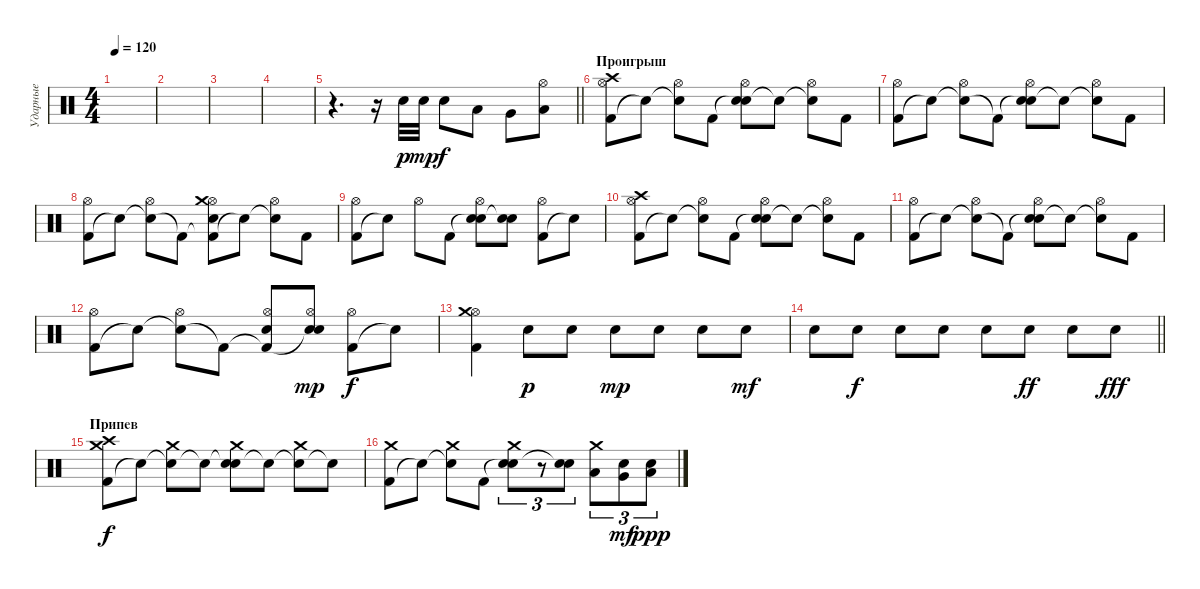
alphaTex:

\track ("Ударные" "Ударные") {instrument percussion}
\staff {score}
\articulation defaults
\ts (4 4)
\tempo 120
\clef neutral
\ks c
|
|
|
|
\barLineRight lightlight
r.4{d} r.16 "Electric Snare (hit)".32{dy p} "Electric Snare (hit)".32{dy mp} "Electric Snare (hit)".8{dy f} "Low Tom (hit)".8 "Very Low Tom (hit)".8 ("Low Floor Tom (hit)" "Hi-Hat (open)").8 |
\section ("" "Проигрыш")
("Kick (hit) 2" "Hi-Hat (open)" "Crash high (hit)").8 "Snare (hit)"{t}.8 ("Snare (hit)"{t} "Hi-Hat (open)").8 "Kick (hit) 2".8 ("Snare (hit)"{t} "Hi-Hat (open)" "Electric Snare (hit)").8 "Snare (hit)"{t}.8 ("Snare (hit)"{t} "Hi-Hat (open)").8 "Kick (hit) 2".8 |
("Kick (hit) 2" "Hi-Hat (open)").8 "Snare (hit)"{t}.8 ("Snare (hit)"{t} "Hi-Hat (open)").8 "Kick (hit) 2"{t}.8 ("Snare (hit)"{t} "Hi-Hat (open)" "Electric Snare (hit)").8 "Snare (hit)"{t}.8 ("Snare (hit)"{t} "Hi-Hat (open)").8 "Kick (hit) 2".8 |
("Kick (hit) 2" "Hi-Hat (open)").8 "Snare (hit)"{t}.8 ("Snare (hit)"{t} "Hi-Hat (open)").8 "Kick (hit) 2"{t}.8 ("Kick (hit) 2"{t} "Hi-Hat (open)" "Electric Snare (hit)" "Crash medium (hit)").8 "Snare (hit)"{t}.8 ("Snare (hit)"{t} "Hi-Hat (open)").8 "Kick (hit) 2".8 |
("Kick (hit) 2" "Hi-Hat (open)").8 "Snare (hit)"{t}.8 "Hi-Hat (open)".8 "Kick (hit) 2".8 ("Snare (hit)"{t} "Hi-Hat (open)" "Electric Snare (hit)").8 ("Snare (hit)"{t} "Electric Snare (hit)").8 ("Kick (hit) 2" "Hi-Hat (open)").8 "Snare (hit)"{t}.8 |
("Kick (hit) 2" "Hi-Hat (open)" "Crash high (hit)").8 "Snare (hit)"{t}.8 ("Snare (hit)"{t} "Hi-Hat (open)").8 "Kick (hit) 2".8 ("Snare (hit)"{t} "Hi-Hat (open)" "Electric Snare (hit)").8 "Snare (hit)"{t}.8 ("Snare (hit)"{t} "Hi-Hat (open)").8 "Kick (hit) 2".8 |
("Kick (hit) 2" "Hi-Hat (open)").8 "Snare (hit)"{t}.8 ("Snare (hit)"{t} "Hi-Hat (open)").8 "Kick (hit) 2"{t}.8 ("Snare (hit)"{t} "Hi-Hat (open)" "Electric Snare (hit)").8 "Snare (hit)"{t}.8 ("Snare (hit)"{t} "Hi-Hat (open)").8 "Kick (hit) 2".8 |
("Kick (hit) 2" "Hi-Hat (open)").8 "Snare (hit)"{t}.8 ("Snare (hit)"{t} "Hi-Hat (open)").8 "Kick (hit) 2"{t}.8 ("Kick (hit) 2"{t} "Hi-Hat (open)" "Electric Snare (hit)").8 ("Snare (hit)"{t} "Hi-Hat (open)" "Electric Snare (hit)").8{dy mp} ("Kick (hit) 2" "Hi-Hat (open)").8{dy f} "Snare (hit)"{t}.8 |
("Kick (hit) 2" "Hi-Hat (open)" "Crash medium (hit)").4 "Electric Snare (hit)".8{dy p} "Electric Snare (hit)".8 "Electric Snare (hit)".8{dy mp} "Electric Snare (hit)".8 "Electric Snare (hit)".8 "Electric Snare (hit)".8{dy mf} |
\barLineRight lightlight "Electric Snare (hit)".8 "Electric Snare (hit)".8{dy f} "Electric Snare (hit)".8 "Electric Snare (hit)".8 "Electric Snare (hit)".8 "Electric Snare (hit)".8{dy ff} "Electric Snare (hit)".8 "Electric Snare (hit)".8{dy fff}
|
\section ("" "Припев")
("Kick (hit) 2" "Crash medium (hit)" "Crash high (hit)").8{dy f} "Snare (hit)"{t}.8 ("Snare (hit)"{t} "Crash medium (hit)").8 "Snare (hit)"{t}.8 ("Snare (hit)"{t} "Crash medium (hit)" "Electric Snare (hit)").8 "Snare (hit)"{t}.8 ("Snare (hit)"{t} "Crash medium (hit)").8 "Snare (hit)"{t}.8 |
("Kick (hit) 2" "Crash medium (hit)").8 "Snare (hit)"{t}.8 ("Snare (hit)"{t} "Crash medium (hit)").8 "Kick (hit) 2".8 ("Snare (hit)"{t} "Crash medium (hit)" "Electric Snare (hit)").8{tu (3 2)} r.8{tu (3 2)} ("Snare (hit)"{t} "Electric Snare (hit)").8{tu (3 2)} ("Low Tom (hit)" "Crash medium (hit)").8{tu (3 2)} ("Very Low Tom (hit)" "Electric Snare (hit)").8{tu (3 2) dy mf} ("Low Floor Tom (hit)" "Electric Snare (hit)").8{tu (3 2) dy ppp}
